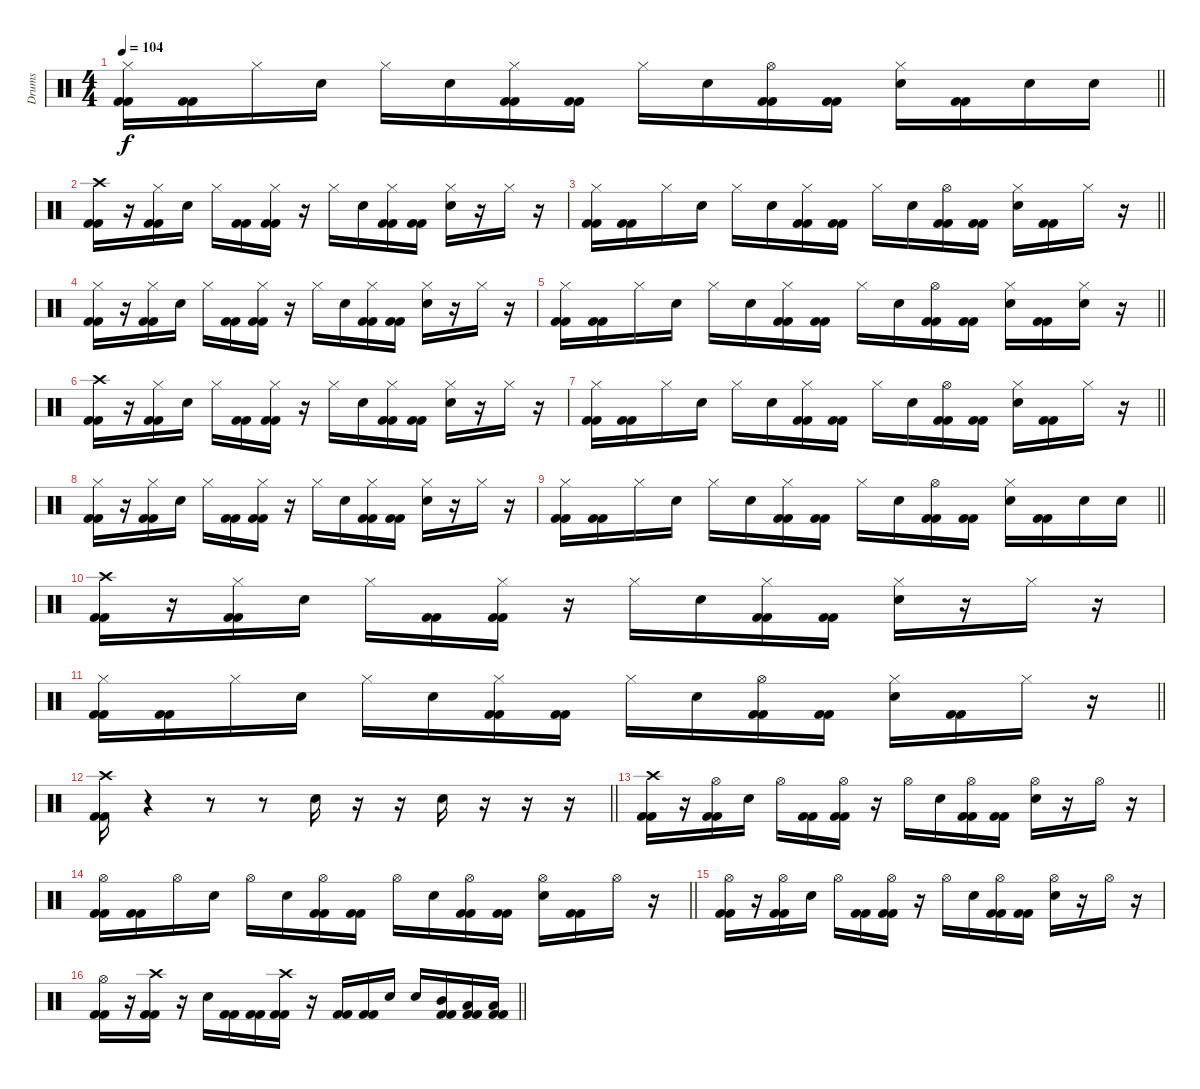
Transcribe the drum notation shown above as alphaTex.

\track ("Drums" "Drums") {instrument percussion}
\staff {score}
\articulation defaults
\ts (4 4)
\tempo 104
\clef neutral
\barLineRight lightlight
\ks c
("Hi-Hat (closed)" "Kick (hit) 2" "Kick (hit) 2").16{dy f} ("Kick (hit) 2" "Kick (hit) 2").16 "Hi-Hat (closed)".16 "Snare (hit) 2".16 "Hi-Hat (closed)".16 "Snare (hit) 2".16 ("Hi-Hat (closed)" "Kick (hit) 2" "Kick (hit) 2").16 ("Kick (hit) 2" "Kick (hit) 2").16 "Hi-Hat (closed)".16 "Snare (hit) 2".16 ("Hi-Hat (open)" "Kick (hit) 2" "Kick (hit) 2").16 ("Kick (hit) 2" "Kick (hit) 2").16 ("Hi-Hat (closed)" "Snare (hit) 2").16 ("Kick (hit) 2" "Kick (hit) 2").16 "Snare (hit) 2".16 "Snare (hit) 2".16 |
("Crash high (hit)" "Kick (hit) 2" "Kick (hit) 2").16 r.16 ("Hi-Hat (closed)" "Kick (hit) 2" "Kick (hit) 2").16 "Snare (hit) 2".16 "Hi-Hat (closed)".16 ("Kick (hit) 2" "Kick (hit) 2").16 ("Hi-Hat (closed)" "Kick (hit) 2" "Kick (hit) 2").16 r.16 "Hi-Hat (closed)".16 "Snare (hit) 2".16 ("Hi-Hat (closed)" "Kick (hit) 2" "Kick (hit) 2").16 ("Kick (hit) 2" "Kick (hit) 2").16 ("Hi-Hat (closed)" "Snare (hit) 2").16 r.16 "Hi-Hat (closed)".16 r.16 |
\barLineRight lightlight
("Hi-Hat (closed)" "Kick (hit) 2" "Kick (hit) 2").16 ("Kick (hit) 2" "Kick (hit) 2").16 "Hi-Hat (closed)".16 "Snare (hit) 2".16 "Hi-Hat (closed)".16 "Snare (hit) 2".16 ("Hi-Hat (closed)" "Kick (hit) 2" "Kick (hit) 2").16 ("Kick (hit) 2" "Kick (hit) 2").16 "Hi-Hat (closed)".16 "Snare (hit) 2".16 ("Hi-Hat (open)" "Kick (hit) 2" "Kick (hit) 2").16 ("Kick (hit) 2" "Kick (hit) 2").16 ("Hi-Hat (closed)" "Snare (hit) 2").16 ("Kick (hit) 2" "Kick (hit) 2").16 "Hi-Hat (closed)".16 r.16 |
("Hi-Hat (closed)" "Kick (hit) 2" "Kick (hit) 2").16 r.16 ("Hi-Hat (closed)" "Kick (hit) 2" "Kick (hit) 2").16 "Snare (hit) 2".16 "Hi-Hat (closed)".16 ("Kick (hit) 2" "Kick (hit) 2").16 ("Hi-Hat (closed)" "Kick (hit) 2" "Kick (hit) 2").16 r.16 "Hi-Hat (closed)".16 "Snare (hit) 2".16 ("Hi-Hat (closed)" "Kick (hit) 2" "Kick (hit) 2").16 ("Kick (hit) 2" "Kick (hit) 2").16 ("Hi-Hat (closed)" "Snare (hit) 2").16 r.16 "Hi-Hat (closed)".16 r.16 |
\barLineRight lightlight
("Hi-Hat (closed)" "Kick (hit) 2" "Kick (hit) 2").16 ("Kick (hit) 2" "Kick (hit) 2").16 "Hi-Hat (closed)".16 "Snare (hit) 2".16 "Hi-Hat (closed)".16 "Snare (hit) 2".16 ("Hi-Hat (closed)" "Kick (hit) 2" "Kick (hit) 2").16 ("Kick (hit) 2" "Kick (hit) 2").16 "Hi-Hat (closed)".16 "Snare (hit) 2".16 ("Hi-Hat (open)" "Kick (hit) 2" "Kick (hit) 2").16 ("Kick (hit) 2" "Kick (hit) 2").16 ("Hi-Hat (closed)" "Snare (hit) 2").16 ("Kick (hit) 2" "Kick (hit) 2").16 ("Hi-Hat (closed)" "Snare (hit) 2").16 r.16 |
("Crash high (hit)" "Kick (hit) 2" "Kick (hit) 2").16 r.16 ("Hi-Hat (closed)" "Kick (hit) 2" "Kick (hit) 2").16 "Snare (hit) 2".16 "Hi-Hat (closed)".16 ("Kick (hit) 2" "Kick (hit) 2").16 ("Hi-Hat (closed)" "Kick (hit) 2" "Kick (hit) 2").16 r.16 "Hi-Hat (closed)".16 "Snare (hit) 2".16 ("Hi-Hat (closed)" "Kick (hit) 2" "Kick (hit) 2").16 ("Kick (hit) 2" "Kick (hit) 2").16 ("Hi-Hat (closed)" "Snare (hit) 2").16 r.16 "Hi-Hat (closed)".16 r.16 |
\barLineRight lightlight
("Hi-Hat (closed)" "Kick (hit) 2" "Kick (hit) 2").16 ("Kick (hit) 2" "Kick (hit) 2").16 "Hi-Hat (closed)".16 "Snare (hit) 2".16 "Hi-Hat (closed)".16 "Snare (hit) 2".16 ("Hi-Hat (closed)" "Kick (hit) 2" "Kick (hit) 2").16 ("Kick (hit) 2" "Kick (hit) 2").16 "Hi-Hat (closed)".16 "Snare (hit) 2".16 ("Hi-Hat (open)" "Kick (hit) 2" "Kick (hit) 2").16 ("Kick (hit) 2" "Kick (hit) 2").16 ("Hi-Hat (closed)" "Snare (hit) 2").16 ("Kick (hit) 2" "Kick (hit) 2").16 "Hi-Hat (closed)".16 r.16 |
("Hi-Hat (closed)" "Kick (hit) 2" "Kick (hit) 2").16 r.16 ("Hi-Hat (closed)" "Kick (hit) 2" "Kick (hit) 2").16 "Snare (hit) 2".16 "Hi-Hat (closed)".16 ("Kick (hit) 2" "Kick (hit) 2").16 ("Hi-Hat (closed)" "Kick (hit) 2" "Kick (hit) 2").16 r.16 "Hi-Hat (closed)".16 "Snare (hit) 2".16 ("Hi-Hat (closed)" "Kick (hit) 2" "Kick (hit) 2").16 ("Kick (hit) 2" "Kick (hit) 2").16 ("Hi-Hat (closed)" "Snare (hit) 2").16 r.16 "Hi-Hat (closed)".16 r.16 |
\barLineRight lightlight
("Hi-Hat (closed)" "Kick (hit) 2" "Kick (hit) 2").16 ("Kick (hit) 2" "Kick (hit) 2").16 "Hi-Hat (closed)".16 "Snare (hit) 2".16 "Hi-Hat (closed)".16 "Snare (hit) 2".16 ("Hi-Hat (closed)" "Kick (hit) 2" "Kick (hit) 2").16 ("Kick (hit) 2" "Kick (hit) 2").16 "Hi-Hat (closed)".16 "Snare (hit) 2".16 ("Hi-Hat (open)" "Kick (hit) 2" "Kick (hit) 2").16 ("Kick (hit) 2" "Kick (hit) 2").16 ("Hi-Hat (closed)" "Snare (hit) 2").16 ("Kick (hit) 2" "Kick (hit) 2").16 "Snare (hit) 2".16 "Snare (hit) 2".16 |
("Crash high (hit)" "Kick (hit) 2" "Kick (hit) 2").16 r.16 ("Hi-Hat (closed)" "Kick (hit) 2" "Kick (hit) 2").16 "Snare (hit) 2".16 "Hi-Hat (closed)".16 ("Kick (hit) 2" "Kick (hit) 2").16 ("Hi-Hat (closed)" "Kick (hit) 2" "Kick (hit) 2").16 r.16 "Hi-Hat (closed)".16 "Snare (hit) 2".16 ("Hi-Hat (closed)" "Kick (hit) 2" "Kick (hit) 2").16 ("Kick (hit) 2" "Kick (hit) 2").16 ("Hi-Hat (closed)" "Snare (hit) 2").16 r.16 "Hi-Hat (closed)".16 r.16 |
\barLineRight lightlight
("Hi-Hat (closed)" "Kick (hit) 2" "Kick (hit) 2").16 ("Kick (hit) 2" "Kick (hit) 2").16 "Hi-Hat (closed)".16 "Snare (hit) 2".16 "Hi-Hat (closed)".16 "Snare (hit) 2".16 ("Hi-Hat (closed)" "Kick (hit) 2" "Kick (hit) 2").16 ("Kick (hit) 2" "Kick (hit) 2").16 "Hi-Hat (closed)".16 "Snare (hit) 2".16 ("Hi-Hat (open)" "Kick (hit) 2" "Kick (hit) 2").16 ("Kick (hit) 2" "Kick (hit) 2").16 ("Hi-Hat (closed)" "Snare (hit) 2").16 ("Kick (hit) 2" "Kick (hit) 2").16 "Hi-Hat (closed)".16 r.16 |
\barLineRight lightlight
("Crash high (hit)" "Kick (hit) 2" "Kick (hit) 2").16 r.4 r.8 r.8 "Snare (hit) 2".16 r.16 r.16 "Snare (hit) 2".16 r.16 r.16 r.16 |
\section ("" "")
("Crash high (hit)" "Kick (hit) 2" "Kick (hit) 2").16 r.16 ("Hi-Hat (open)" "Kick (hit) 2" "Kick (hit) 2").16 "Snare (hit) 2".16 "Hi-Hat (open)".16 ("Kick (hit) 2" "Kick (hit) 2").16 ("Hi-Hat (open)" "Kick (hit) 2" "Kick (hit) 2").16 r.16 "Hi-Hat (open)".16 "Snare (hit) 2".16 ("Hi-Hat (open)" "Kick (hit) 2" "Kick (hit) 2").16 ("Kick (hit) 2" "Kick (hit) 2").16 ("Hi-Hat (open)" "Snare (hit) 2").16 r.16 "Hi-Hat (open)".16 r.16 |
\barLineRight lightlight
("Hi-Hat (open)" "Kick (hit) 2" "Kick (hit) 2").16 ("Kick (hit) 2" "Kick (hit) 2").16 "Hi-Hat (open)".16 "Snare (hit) 2".16 "Hi-Hat (open)".16 "Snare (hit) 2".16 ("Hi-Hat (open)" "Kick (hit) 2" "Kick (hit) 2").16 ("Kick (hit) 2" "Kick (hit) 2").16 "Hi-Hat (open)".16 "Snare (hit) 2".16 ("Hi-Hat (open)" "Kick (hit) 2" "Kick (hit) 2").16 ("Kick (hit) 2" "Kick (hit) 2").16 ("Hi-Hat (open)" "Snare (hit) 2").16 ("Kick (hit) 2" "Kick (hit) 2").16 "Hi-Hat (open)".16 r.16 |
("Hi-Hat (open)" "Kick (hit) 2" "Kick (hit) 2").16 r.16 ("Hi-Hat (open)" "Kick (hit) 2" "Kick (hit) 2").16 "Snare (hit) 2".16 "Hi-Hat (open)".16 ("Kick (hit) 2" "Kick (hit) 2").16 ("Hi-Hat (open)" "Kick (hit) 2" "Kick (hit) 2").16 r.16 "Hi-Hat (open)".16 "Snare (hit) 2".16 ("Hi-Hat (open)" "Kick (hit) 2" "Kick (hit) 2").16 ("Kick (hit) 2" "Kick (hit) 2").16 ("Hi-Hat (open)" "Snare (hit) 2").16 r.16 "Hi-Hat (open)".16 r.16 |
\barLineRight lightlight
("Hi-Hat (open)" "Kick (hit) 2" "Kick (hit) 2").16 r.16 ("Crash high (hit)" "Kick (hit) 2" "Kick (hit) 2").16 r.16 "Snare (hit) 2".16 ("Kick (hit) 2" "Kick (hit) 2").16 ("Kick (hit) 2" "Kick (hit) 2").16 ("Crash high (hit)" "Kick (hit) 2" "Kick (hit) 2").16 r.16 ("Kick (hit) 2" "Kick (hit) 2").16 ("Kick (hit) 2" "Kick (hit) 2").16 "Snare (hit) 2".16 "Snare (hit) 2".16 ("Mid Tom (hit)" "Kick (hit) 2" "Kick (hit) 2").16 ("Low Tom (hit)" "Kick (hit) 2" "Kick (hit) 2").16 ("Low Tom (hit)" "Kick (hit) 2" "Kick (hit) 2").16
